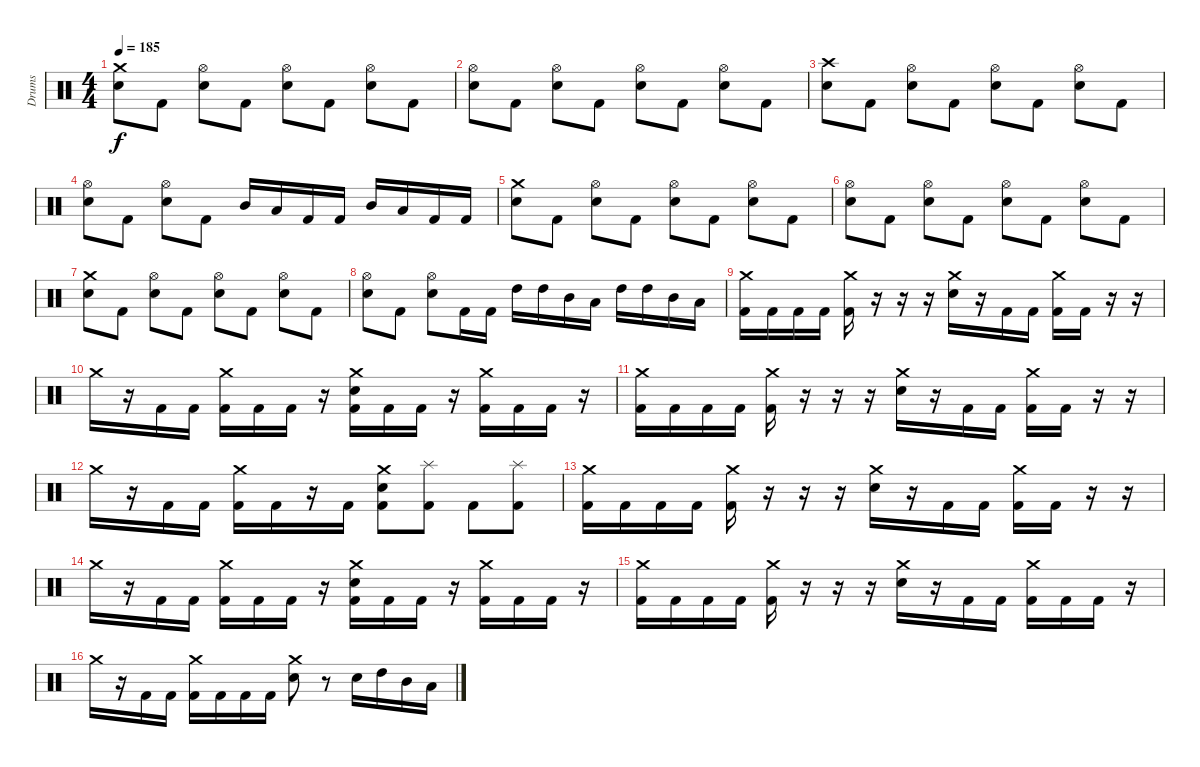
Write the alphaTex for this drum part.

\track ("Drums" "Drums") {solo instrument percussion}
\staff {score}
\articulation defaults
\ts (4 4)
\tempo 185
\clef neutral
\ks c
("Crash medium (hit)" "Snare (hit) 2").8{dy f} "Kick (hit) 2".8 ("Snare (hit) 2" "Hi-Hat (open)").8 "Kick (hit) 2".8 ("Snare (hit) 2" "Hi-Hat (open)").8 "Kick (hit) 2".8 ("Snare (hit) 2" "Hi-Hat (open)").8 "Kick (hit) 2".8 |
("Snare (hit) 2" "Hi-Hat (open)").8 "Kick (hit) 2".8 ("Snare (hit) 2" "Hi-Hat (open)").8 "Kick (hit) 2".8 ("Snare (hit) 2" "Hi-Hat (open)").8 "Kick (hit) 2".8 ("Snare (hit) 2" "Hi-Hat (open)").8 "Kick (hit) 2".8 |
("Crash high (hit)" "Snare (hit) 2").8 "Kick (hit) 2".8 ("Snare (hit) 2" "Hi-Hat (open)").8 "Kick (hit) 2".8 ("Snare (hit) 2" "Hi-Hat (open)").8 "Kick (hit) 2".8 ("Snare (hit) 2" "Hi-Hat (open)").8 "Kick (hit) 2".8 |
("Snare (hit) 2" "Hi-Hat (open)").8 "Kick (hit) 2".8 ("Snare (hit) 2" "Hi-Hat (open)").8 "Kick (hit) 2".8 "Mid Tom (hit)".16 "Low Tom (hit)".16 "Kick (hit) 2".16 "Kick (hit) 2".16 "Mid Tom (hit)".16 "Low Tom (hit)".16 "Kick (hit) 2".16 "Kick (hit) 2".16 |
("Crash medium (hit)" "Snare (hit) 2").8 "Kick (hit) 2".8 ("Snare (hit) 2" "Hi-Hat (open)").8 "Kick (hit) 2".8 ("Snare (hit) 2" "Hi-Hat (open)").8 "Kick (hit) 2".8 ("Snare (hit) 2" "Hi-Hat (open)").8 "Kick (hit) 2".8 |
("Snare (hit) 2" "Hi-Hat (open)").8 "Kick (hit) 2".8 ("Snare (hit) 2" "Hi-Hat (open)").8 "Kick (hit) 2".8 ("Snare (hit) 2" "Hi-Hat (open)").8 "Kick (hit) 2".8 ("Snare (hit) 2" "Hi-Hat (open)").8 "Kick (hit) 2".8 |
("Crash medium (hit)" "Snare (hit) 2").8 "Kick (hit) 2".8 ("Snare (hit) 2" "Hi-Hat (open)").8 "Kick (hit) 2".8 ("Snare (hit) 2" "Hi-Hat (open)").8 "Kick (hit) 2".8 ("Snare (hit) 2" "Hi-Hat (open)").8 "Kick (hit) 2".8 |
("Snare (hit) 2" "Hi-Hat (open)").8 "Kick (hit) 2".8 ("Snare (hit) 2" "Hi-Hat (open)").8 "Kick (hit) 2".16 "Kick (hit) 2".16 "High Tom (hit)".16 "High Tom (hit)".16 "Mid Tom (hit)".16 "Low Tom (hit)".16 "High Tom (hit)".16 "High Tom (hit)".16 "Mid Tom (hit)".16 "Low Tom (hit)".16 |
("Crash medium (hit)" "Kick (hit) 2").16 "Kick (hit) 2".16 "Kick (hit) 2".16 "Kick (hit) 2".16 ("Crash medium (hit)" "Kick (hit) 2").16 r.16 r.16 r.16 ("Crash medium (hit)" "Snare (hit) 2").16 r.16 "Kick (hit) 2".16 "Kick (hit) 2".16 ("Crash medium (hit)" "Kick (hit) 2").16 "Kick (hit) 2".16 r.16 r.16 |
"Crash medium (hit)".16 r.16 "Kick (hit) 2".16 "Kick (hit) 2".16 ("Crash medium (hit)" "Kick (hit) 2").16 "Kick (hit) 2".16 "Kick (hit) 2".16 r.16 ("Crash medium (hit)" "Snare (hit) 2" "Kick (hit) 2").16 "Kick (hit) 2".16 "Kick (hit) 2".16 r.16 ("Crash medium (hit)" "Kick (hit) 2").16 "Kick (hit) 2".16 "Kick (hit) 2".16 r.16 |
("Crash medium (hit)" "Kick (hit) 2").16 "Kick (hit) 2".16 "Kick (hit) 2".16 "Kick (hit) 2".16 ("Crash medium (hit)" "Kick (hit) 2").16 r.16 r.16 r.16 ("Crash medium (hit)" "Snare (hit) 2").16 r.16 "Kick (hit) 2".16 "Kick (hit) 2".16 ("Crash medium (hit)" "Kick (hit) 2").16 "Kick (hit) 2".16 r.16 r.16 |
"Crash medium (hit)".16 r.16 "Kick (hit) 2".16 "Kick (hit) 2".16 ("Crash medium (hit)" "Kick (hit) 2").16 "Kick (hit) 2".16 r.16 "Kick (hit) 2".16 ("Crash medium (hit)" "Snare (hit) 2" "Kick (hit) 2").8 ("Splash (hit)" "Kick (hit) 2").8 "Kick (hit) 2".8 ("Splash (hit)" "Kick (hit) 2").8 |
("Crash medium (hit)" "Kick (hit) 2").16 "Kick (hit) 2".16 "Kick (hit) 2".16 "Kick (hit) 2".16 ("Crash medium (hit)" "Kick (hit) 2").16 r.16 r.16 r.16 ("Crash medium (hit)" "Snare (hit) 2").16 r.16 "Kick (hit) 2".16 "Kick (hit) 2".16 ("Crash medium (hit)" "Kick (hit) 2").16 "Kick (hit) 2".16 r.16 r.16 |
"Crash medium (hit)".16 r.16 "Kick (hit) 2".16 "Kick (hit) 2".16 ("Crash medium (hit)" "Kick (hit) 2").16 "Kick (hit) 2".16 "Kick (hit) 2".16 r.16 ("Crash medium (hit)" "Snare (hit) 2" "Kick (hit) 2").16 "Kick (hit) 2".16 "Kick (hit) 2".16 r.16 ("Crash medium (hit)" "Kick (hit) 2").16 "Kick (hit) 2".16 "Kick (hit) 2".16 r.16 |
("Crash medium (hit)" "Kick (hit) 2").16 "Kick (hit) 2".16 "Kick (hit) 2".16 "Kick (hit) 2".16 ("Crash medium (hit)" "Kick (hit) 2").16 r.16 r.16 r.16 ("Crash medium (hit)" "Snare (hit) 2").16 r.16 "Kick (hit) 2".16 "Kick (hit) 2".16 ("Crash medium (hit)" "Kick (hit) 2").16 "Kick (hit) 2".16 "Kick (hit) 2".16 r.16 |
"Crash medium (hit)".16 r.16 "Kick (hit) 2".16 "Kick (hit) 2".16 ("Crash medium (hit)" "Kick (hit) 2").16 "Kick (hit) 2".16 "Kick (hit) 2".16 "Kick (hit) 2".16 ("Crash medium (hit)" "Snare (hit) 2").8 r.8 "Snare (hit) 2".16 "High Tom (hit)".16 "Mid Tom (hit)".16 "Low Tom (hit)".16
